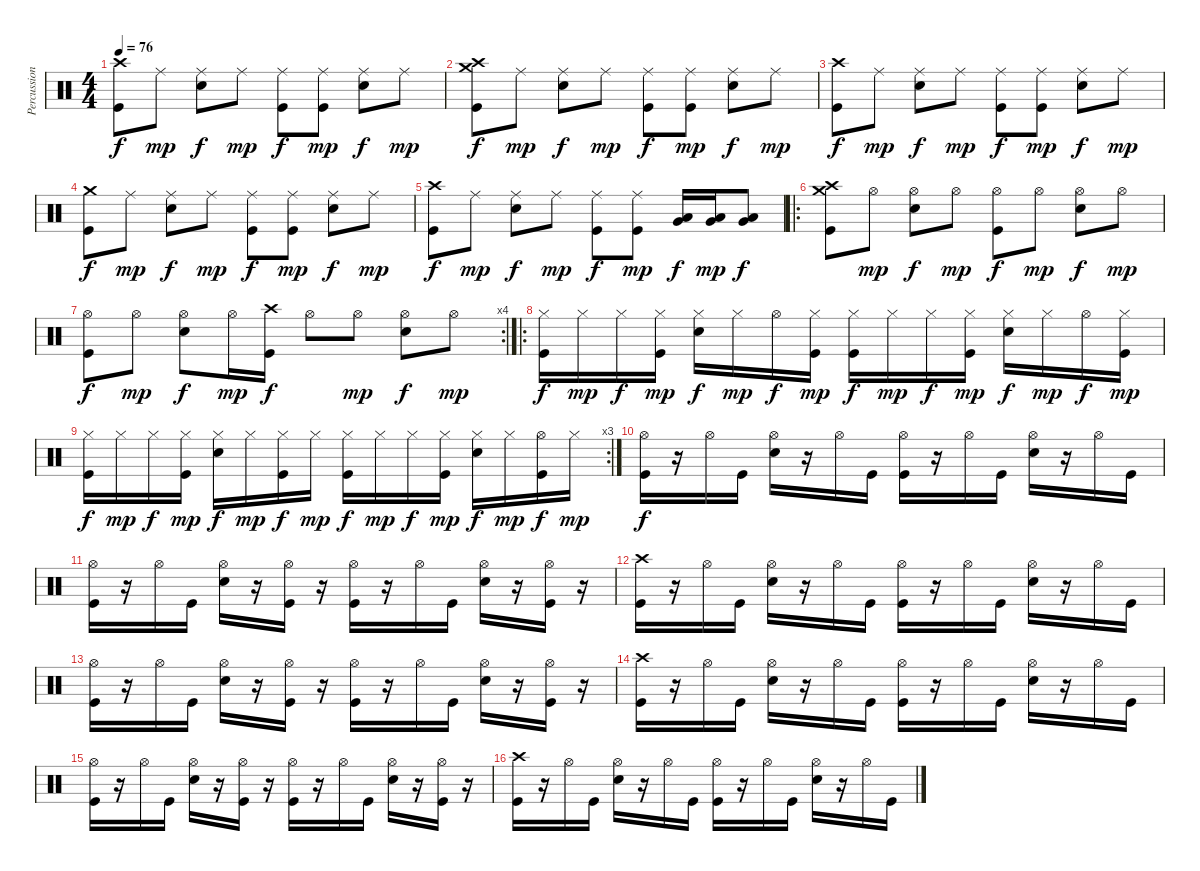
\track ("Percussion" "Percussion") {instrument percussion}
\staff {score}
\articulation defaults
\ts (4 4)
\tempo 76
\clef neutral
\ks c
("Crash high (hit)" "Kick (hit)").8{dy f} "Ride (middle)".8{dy mp} ("Ride (middle)" "Electric Snare (hit)").8{dy f} "Ride (middle)".8{dy mp} ("Ride (middle)" "Kick (hit)").8{dy f} ("Ride (middle)" "Kick (hit)").8{dy mp} ("Ride (middle)" "Electric Snare (hit)").8{dy f} "Ride (middle)".8{dy mp} |
("Crash medium (hit)" "Crash high (hit)" "Kick (hit)").8{dy f} "Ride (middle)".8{dy mp} ("Ride (middle)" "Electric Snare (hit)").8{dy f} "Ride (middle)".8{dy mp} ("Ride (middle)" "Kick (hit)").8{dy f} ("Ride (middle)" "Kick (hit)").8{dy mp} ("Ride (middle)" "Electric Snare (hit)").8{dy f} "Ride (middle)".8{dy mp} |
("Crash high (hit)" "Kick (hit)").8{dy f} "Ride (middle)".8{dy mp} ("Ride (middle)" "Electric Snare (hit)").8{dy f} "Ride (middle)".8{dy mp} ("Ride (middle)" "Kick (hit)").8{dy f} ("Ride (middle)" "Kick (hit)").8{dy mp} ("Ride (middle)" "Electric Snare (hit)").8{dy f} "Ride (middle)".8{dy mp} |
("Crash medium (hit)" "Kick (hit)").8{dy f} "Ride (middle)".8{dy mp} ("Ride (middle)" "Electric Snare (hit)").8{dy f} "Ride (middle)".8{dy mp} ("Ride (middle)" "Kick (hit)").8{dy f} ("Ride (middle)" "Kick (hit)").8{dy mp} ("Ride (middle)" "Electric Snare (hit)").8{dy f} "Ride (middle)".8{dy mp} |
("Crash high (hit)" "Kick (hit)").8{dy f} "Ride (middle)".8{dy mp} ("Ride (middle)" "Electric Snare (hit)").8{dy f} "Ride (middle)".8{dy mp} ("Ride (middle)" "Kick (hit)").8{dy f} ("Ride (middle)" "Kick (hit)").8{dy mp} ("Low Tom (hit)" "Very Low Tom (hit)").16{dy f} ("Low Tom (hit)" "Very Low Tom (hit)").16{dy mp} ("Low Tom (hit)" "Very Low Tom (hit)").8{dy f} |
\ro
("Crash high (hit)" "Crash medium (hit)" "Kick (hit)").8 "Hi-Hat (open)".8{dy mp} ("Hi-Hat (open)" "Electric Snare (hit)").8{dy f} "Hi-Hat (open)".8{dy mp} ("Hi-Hat (open)" "Kick (hit)").8{dy f} "Hi-Hat (open)".8{dy mp} ("Hi-Hat (open)" "Electric Snare (hit)").8{dy f} "Hi-Hat (open)".8{dy mp} |
\rc 4
("Hi-Hat (open)" "Kick (hit)").8{dy f} "Hi-Hat (open)".8{dy mp} ("Hi-Hat (open)" "Electric Snare (hit)").8{dy f} "Hi-Hat (open)".16{dy mp} ("Crash high (hit)" "Kick (hit)").16{dy f} "Hi-Hat (open)".8 "Hi-Hat (open)".8{dy mp} ("Hi-Hat (open)" "Electric Snare (hit)").8{dy f} "Hi-Hat (open)".8{dy mp} |
\ro
("Hi-Hat (closed)" "Kick (hit)").16{dy f volume 10} "Hi-Hat (closed)".16{dy mp} "Hi-Hat (closed)".16{dy f} ("Hi-Hat (closed)" "Kick (hit)").16{dy mp} ("Hi-Hat (closed)" "Electric Snare (hit)").16{dy f} "Hi-Hat (closed)".16{dy mp} "Hi-Hat (open)".16{dy f} ("Hi-Hat (closed)" "Kick (hit)").16{dy mp} ("Hi-Hat (closed)" "Kick (hit)").16{dy f} "Hi-Hat (closed)".16{dy mp} "Hi-Hat (closed)".16{dy f} ("Hi-Hat (closed)" "Kick (hit)").16{dy mp} ("Hi-Hat (closed)" "Electric Snare (hit)").16{dy f} "Hi-Hat (closed)".16{dy mp} "Hi-Hat (open)".16{dy f} ("Hi-Hat (closed)" "Kick (hit)").16{dy mp} |
\rc 3
("Hi-Hat (closed)" "Kick (hit)").16{dy f} "Hi-Hat (closed)".16{dy mp} "Hi-Hat (closed)".16{dy f} ("Hi-Hat (closed)" "Kick (hit)").16{dy mp} ("Hi-Hat (closed)" "Electric Snare (hit)").16{dy f} "Hi-Hat (closed)".16{dy mp} ("Hi-Hat (closed)" "Kick (hit)").16{dy f} "Hi-Hat (closed)".16{dy mp} ("Hi-Hat (closed)" "Kick (hit)").16{dy f} "Hi-Hat (closed)".16{dy mp} "Hi-Hat (closed)".16{dy f} ("Hi-Hat (closed)" "Kick (hit)").16{dy mp} ("Hi-Hat (closed)" "Electric Snare (hit)").16{dy f} "Hi-Hat (closed)".16{dy mp} ("Hi-Hat (open)" "Kick (hit)").16{dy f} "Hi-Hat (closed)".16{dy mp} |
("Hi-Hat (open)" "Kick (hit)").16{dy f volume 9} r.16 "Hi-Hat (open)".16 "Kick (hit)".16 ("Hi-Hat (open)" "Electric Snare (hit)").16 r.16 "Hi-Hat (open)".16 "Kick (hit)".16 ("Hi-Hat (open)" "Kick (hit)").16 r.16 "Hi-Hat (open)".16 "Kick (hit)".16 ("Hi-Hat (open)" "Electric Snare (hit)").16 r.16 "Hi-Hat (open)".16 "Kick (hit)".16 |
("Hi-Hat (open)" "Kick (hit)").16 r.16 "Hi-Hat (open)".16 "Kick (hit)".16 ("Hi-Hat (open)" "Electric Snare (hit)").16 r.16 ("Hi-Hat (open)" "Kick (hit)").16 r.16 ("Hi-Hat (open)" "Kick (hit)").16 r.16 "Hi-Hat (open)".16 "Kick (hit)".16 ("Hi-Hat (open)" "Electric Snare (hit)").16 r.16 ("Hi-Hat (open)" "Kick (hit)").16 r.16 |
("Crash high (hit)" "Kick (hit)").16{volume 13} r.16 "Hi-Hat (open)".16 "Kick (hit)".16 ("Hi-Hat (open)" "Electric Snare (hit)").16 r.16 "Hi-Hat (open)".16 "Kick (hit)".16 ("Hi-Hat (open)" "Kick (hit)").16 r.16 "Hi-Hat (open)".16 "Kick (hit)".16 ("Hi-Hat (open)" "Electric Snare (hit)").16 r.16 "Hi-Hat (open)".16 "Kick (hit)".16 |
("Hi-Hat (open)" "Kick (hit)").16 r.16 "Hi-Hat (open)".16 "Kick (hit)".16 ("Hi-Hat (open)" "Electric Snare (hit)").16 r.16 ("Hi-Hat (open)" "Kick (hit)").16 r.16 ("Hi-Hat (open)" "Kick (hit)").16 r.16 "Hi-Hat (open)".16 "Kick (hit)".16 ("Hi-Hat (open)" "Electric Snare (hit)").16 r.16 ("Hi-Hat (open)" "Kick (hit)").16 r.16 |
("Crash high (hit)" "Kick (hit)").16{volume 13} r.16 "Hi-Hat (open)".16 "Kick (hit)".16 ("Hi-Hat (open)" "Electric Snare (hit)").16 r.16 "Hi-Hat (open)".16 "Kick (hit)".16 ("Hi-Hat (open)" "Kick (hit)").16 r.16 "Hi-Hat (open)".16 "Kick (hit)".16 ("Hi-Hat (open)" "Electric Snare (hit)").16 r.16 "Hi-Hat (open)".16 "Kick (hit)".16 |
("Hi-Hat (open)" "Kick (hit)").16 r.16 "Hi-Hat (open)".16 "Kick (hit)".16 ("Hi-Hat (open)" "Electric Snare (hit)").16 r.16 ("Hi-Hat (open)" "Kick (hit)").16 r.16 ("Hi-Hat (open)" "Kick (hit)").16 r.16 "Hi-Hat (open)".16 "Kick (hit)".16 ("Hi-Hat (open)" "Electric Snare (hit)").16 r.16 ("Hi-Hat (open)" "Kick (hit)").16 r.16 |
("Crash high (hit)" "Kick (hit)").16{volume 13} r.16 "Hi-Hat (open)".16 "Kick (hit)".16 ("Hi-Hat (open)" "Electric Snare (hit)").16 r.16 "Hi-Hat (open)".16 "Kick (hit)".16 ("Hi-Hat (open)" "Kick (hit)").16 r.16 "Hi-Hat (open)".16 "Kick (hit)".16 ("Hi-Hat (open)" "Electric Snare (hit)").16 r.16 "Hi-Hat (open)".16 "Kick (hit)".16
